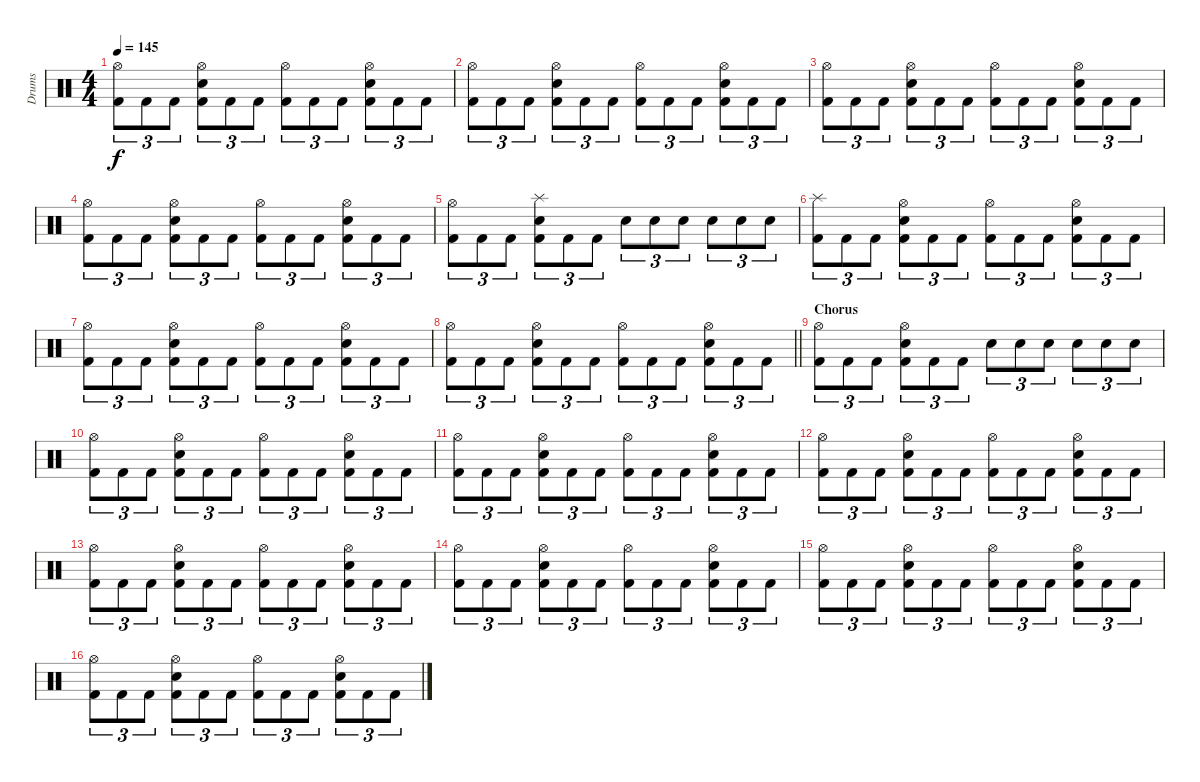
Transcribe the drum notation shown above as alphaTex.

\track ("Drums" "Drums") {instrument percussion}
\staff {score}
\articulation defaults
\ts (4 4)
\tempo 145
\clef neutral
\ks c
("Hi-Hat (open)" "Kick (hit) 2").8{tu (3 2) dy f} "Kick (hit) 2".8{tu (3 2)} "Kick (hit) 2".8{tu (3 2)} ("Hi-Hat (open)" "Electric Snare (hit)" "Kick (hit) 2").8{tu (3 2)} "Kick (hit) 2".8{tu (3 2)} "Kick (hit) 2".8{tu (3 2)} ("Hi-Hat (open)" "Kick (hit) 2").8{tu (3 2)} "Kick (hit) 2".8{tu (3 2)} "Kick (hit) 2".8{tu (3 2)} ("Hi-Hat (open)" "Electric Snare (hit)" "Kick (hit) 2").8{tu (3 2)} "Kick (hit) 2".8{tu (3 2)} "Kick (hit) 2".8{tu (3 2)} |
("Hi-Hat (open)" "Kick (hit) 2").8{tu (3 2)} "Kick (hit) 2".8{tu (3 2)} "Kick (hit) 2".8{tu (3 2)} ("Hi-Hat (open)" "Electric Snare (hit)" "Kick (hit) 2").8{tu (3 2)} "Kick (hit) 2".8{tu (3 2)} "Kick (hit) 2".8{tu (3 2)} ("Hi-Hat (open)" "Kick (hit) 2").8{tu (3 2)} "Kick (hit) 2".8{tu (3 2)} "Kick (hit) 2".8{tu (3 2)} ("Hi-Hat (open)" "Electric Snare (hit)" "Kick (hit) 2").8{tu (3 2)} "Kick (hit) 2".8{tu (3 2)} "Kick (hit) 2".8{tu (3 2)} |
("Hi-Hat (open)" "Kick (hit) 2").8{tu (3 2)} "Kick (hit) 2".8{tu (3 2)} "Kick (hit) 2".8{tu (3 2)} ("Hi-Hat (open)" "Electric Snare (hit)" "Kick (hit) 2").8{tu (3 2)} "Kick (hit) 2".8{tu (3 2)} "Kick (hit) 2".8{tu (3 2)} ("Hi-Hat (open)" "Kick (hit) 2").8{tu (3 2)} "Kick (hit) 2".8{tu (3 2)} "Kick (hit) 2".8{tu (3 2)} ("Hi-Hat (open)" "Electric Snare (hit)" "Kick (hit) 2").8{tu (3 2)} "Kick (hit) 2".8{tu (3 2)} "Kick (hit) 2".8{tu (3 2)} |
("Hi-Hat (open)" "Kick (hit) 2").8{tu (3 2)} "Kick (hit) 2".8{tu (3 2)} "Kick (hit) 2".8{tu (3 2)} ("Hi-Hat (open)" "Electric Snare (hit)" "Kick (hit) 2").8{tu (3 2)} "Kick (hit) 2".8{tu (3 2)} "Kick (hit) 2".8{tu (3 2)} ("Hi-Hat (open)" "Kick (hit) 2").8{tu (3 2)} "Kick (hit) 2".8{tu (3 2)} "Kick (hit) 2".8{tu (3 2)} ("Hi-Hat (open)" "Electric Snare (hit)" "Kick (hit) 2").8{tu (3 2)} "Kick (hit) 2".8{tu (3 2)} "Kick (hit) 2".8{tu (3 2)} |
("Hi-Hat (open)" "Kick (hit) 2").8{tu (3 2)} "Kick (hit) 2".8{tu (3 2)} "Kick (hit) 2".8{tu (3 2)} ("Splash (hit)" "Electric Snare (hit)" "Kick (hit) 2").8{tu (3 2)} "Kick (hit) 2".8{tu (3 2)} "Kick (hit) 2".8{tu (3 2)} "Electric Snare (hit)".8{tu (3 2)} "Electric Snare (hit)".8{tu (3 2)} "Electric Snare (hit)".8{tu (3 2)} "Electric Snare (hit)".8{tu (3 2)} "Electric Snare (hit)".8{tu (3 2)} "Electric Snare (hit)".8{tu (3 2)} |
("Splash (hit)" "Kick (hit) 2").8{tu (3 2)} "Kick (hit) 2".8{tu (3 2)} "Kick (hit) 2".8{tu (3 2)} ("Hi-Hat (open)" "Electric Snare (hit)" "Kick (hit) 2").8{tu (3 2)} "Kick (hit) 2".8{tu (3 2)} "Kick (hit) 2".8{tu (3 2)} ("Hi-Hat (open)" "Kick (hit) 2").8{tu (3 2)} "Kick (hit) 2".8{tu (3 2)} "Kick (hit) 2".8{tu (3 2)} ("Hi-Hat (open)" "Electric Snare (hit)" "Kick (hit) 2").8{tu (3 2)} "Kick (hit) 2".8{tu (3 2)} "Kick (hit) 2".8{tu (3 2)} |
("Hi-Hat (open)" "Kick (hit) 2").8{tu (3 2)} "Kick (hit) 2".8{tu (3 2)} "Kick (hit) 2".8{tu (3 2)} ("Hi-Hat (open)" "Electric Snare (hit)" "Kick (hit) 2").8{tu (3 2)} "Kick (hit) 2".8{tu (3 2)} "Kick (hit) 2".8{tu (3 2)} ("Hi-Hat (open)" "Kick (hit) 2").8{tu (3 2)} "Kick (hit) 2".8{tu (3 2)} "Kick (hit) 2".8{tu (3 2)} ("Hi-Hat (open)" "Electric Snare (hit)" "Kick (hit) 2").8{tu (3 2)} "Kick (hit) 2".8{tu (3 2)} "Kick (hit) 2".8{tu (3 2)} |
\barLineRight lightlight
("Hi-Hat (open)" "Kick (hit) 2").8{tu (3 2)} "Kick (hit) 2".8{tu (3 2)} "Kick (hit) 2".8{tu (3 2)} ("Hi-Hat (open)" "Electric Snare (hit)" "Kick (hit) 2").8{tu (3 2)} "Kick (hit) 2".8{tu (3 2)} "Kick (hit) 2".8{tu (3 2)} ("Hi-Hat (open)" "Kick (hit) 2").8{tu (3 2)} "Kick (hit) 2".8{tu (3 2)} "Kick (hit) 2".8{tu (3 2)} ("Hi-Hat (open)" "Electric Snare (hit)" "Kick (hit) 2").8{tu (3 2)} "Kick (hit) 2".8{tu (3 2)} "Kick (hit) 2".8{tu (3 2)} |
\section ("" "Chorus")
("Hi-Hat (open)" "Kick (hit) 2").8{tu (3 2)} "Kick (hit) 2".8{tu (3 2)} "Kick (hit) 2".8{tu (3 2)} ("Hi-Hat (open)" "Electric Snare (hit)" "Kick (hit) 2").8{tu (3 2)} "Kick (hit) 2".8{tu (3 2)} "Kick (hit) 2".8{tu (3 2)} "Electric Snare (hit)".8{tu (3 2)} "Electric Snare (hit)".8{tu (3 2)} "Electric Snare (hit)".8{tu (3 2)} "Electric Snare (hit)".8{tu (3 2)} "Electric Snare (hit)".8{tu (3 2)} "Electric Snare (hit)".8{tu (3 2)} |
("Hi-Hat (open)" "Kick (hit) 2").8{tu (3 2)} "Kick (hit) 2".8{tu (3 2)} "Kick (hit) 2".8{tu (3 2)} ("Hi-Hat (open)" "Electric Snare (hit)" "Kick (hit) 2").8{tu (3 2)} "Kick (hit) 2".8{tu (3 2)} "Kick (hit) 2".8{tu (3 2)} ("Hi-Hat (open)" "Kick (hit) 2").8{tu (3 2)} "Kick (hit) 2".8{tu (3 2)} "Kick (hit) 2".8{tu (3 2)} ("Hi-Hat (open)" "Electric Snare (hit)" "Kick (hit) 2").8{tu (3 2)} "Kick (hit) 2".8{tu (3 2)} "Kick (hit) 2".8{tu (3 2)} |
("Hi-Hat (open)" "Kick (hit) 2").8{tu (3 2)} "Kick (hit) 2".8{tu (3 2)} "Kick (hit) 2".8{tu (3 2)} ("Hi-Hat (open)" "Electric Snare (hit)" "Kick (hit) 2").8{tu (3 2)} "Kick (hit) 2".8{tu (3 2)} "Kick (hit) 2".8{tu (3 2)} ("Hi-Hat (open)" "Kick (hit) 2").8{tu (3 2)} "Kick (hit) 2".8{tu (3 2)} "Kick (hit) 2".8{tu (3 2)} ("Hi-Hat (open)" "Electric Snare (hit)" "Kick (hit) 2").8{tu (3 2)} "Kick (hit) 2".8{tu (3 2)} "Kick (hit) 2".8{tu (3 2)} |
("Hi-Hat (open)" "Kick (hit) 2").8{tu (3 2)} "Kick (hit) 2".8{tu (3 2)} "Kick (hit) 2".8{tu (3 2)} ("Hi-Hat (open)" "Electric Snare (hit)" "Kick (hit) 2").8{tu (3 2)} "Kick (hit) 2".8{tu (3 2)} "Kick (hit) 2".8{tu (3 2)} ("Hi-Hat (open)" "Kick (hit) 2").8{tu (3 2)} "Kick (hit) 2".8{tu (3 2)} "Kick (hit) 2".8{tu (3 2)} ("Hi-Hat (open)" "Electric Snare (hit)" "Kick (hit) 2").8{tu (3 2)} "Kick (hit) 2".8{tu (3 2)} "Kick (hit) 2".8{tu (3 2)} |
("Hi-Hat (open)" "Kick (hit) 2").8{tu (3 2)} "Kick (hit) 2".8{tu (3 2)} "Kick (hit) 2".8{tu (3 2)} ("Hi-Hat (open)" "Electric Snare (hit)" "Kick (hit) 2").8{tu (3 2)} "Kick (hit) 2".8{tu (3 2)} "Kick (hit) 2".8{tu (3 2)} ("Hi-Hat (open)" "Kick (hit) 2").8{tu (3 2)} "Kick (hit) 2".8{tu (3 2)} "Kick (hit) 2".8{tu (3 2)} ("Hi-Hat (open)" "Electric Snare (hit)" "Kick (hit) 2").8{tu (3 2)} "Kick (hit) 2".8{tu (3 2)} "Kick (hit) 2".8{tu (3 2)} |
("Hi-Hat (open)" "Kick (hit) 2").8{tu (3 2)} "Kick (hit) 2".8{tu (3 2)} "Kick (hit) 2".8{tu (3 2)} ("Hi-Hat (open)" "Electric Snare (hit)" "Kick (hit) 2").8{tu (3 2)} "Kick (hit) 2".8{tu (3 2)} "Kick (hit) 2".8{tu (3 2)} ("Hi-Hat (open)" "Kick (hit) 2").8{tu (3 2)} "Kick (hit) 2".8{tu (3 2)} "Kick (hit) 2".8{tu (3 2)} ("Hi-Hat (open)" "Electric Snare (hit)" "Kick (hit) 2").8{tu (3 2)} "Kick (hit) 2".8{tu (3 2)} "Kick (hit) 2".8{tu (3 2)} |
("Hi-Hat (open)" "Kick (hit) 2").8{tu (3 2)} "Kick (hit) 2".8{tu (3 2)} "Kick (hit) 2".8{tu (3 2)} ("Hi-Hat (open)" "Electric Snare (hit)" "Kick (hit) 2").8{tu (3 2)} "Kick (hit) 2".8{tu (3 2)} "Kick (hit) 2".8{tu (3 2)} ("Hi-Hat (open)" "Kick (hit) 2").8{tu (3 2)} "Kick (hit) 2".8{tu (3 2)} "Kick (hit) 2".8{tu (3 2)} ("Hi-Hat (open)" "Electric Snare (hit)" "Kick (hit) 2").8{tu (3 2)} "Kick (hit) 2".8{tu (3 2)} "Kick (hit) 2".8{tu (3 2)} |
("Hi-Hat (open)" "Kick (hit) 2").8{tu (3 2)} "Kick (hit) 2".8{tu (3 2)} "Kick (hit) 2".8{tu (3 2)} ("Hi-Hat (open)" "Electric Snare (hit)" "Kick (hit) 2").8{tu (3 2)} "Kick (hit) 2".8{tu (3 2)} "Kick (hit) 2".8{tu (3 2)} ("Hi-Hat (open)" "Kick (hit) 2").8{tu (3 2)} "Kick (hit) 2".8{tu (3 2)} "Kick (hit) 2".8{tu (3 2)} ("Hi-Hat (open)" "Electric Snare (hit)" "Kick (hit) 2").8{tu (3 2)} "Kick (hit) 2".8{tu (3 2)} "Kick (hit) 2".8{tu (3 2)}
